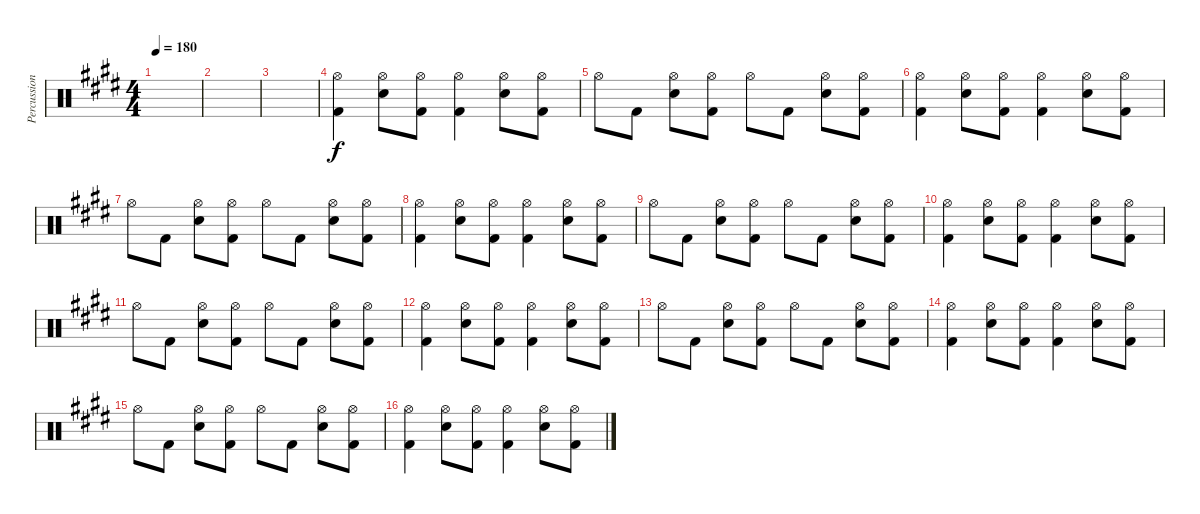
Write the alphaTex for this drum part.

\track ("Percussion" "Percussion") {instrument percussion}
\staff {score}
\articulation defaults
\ts (4 4)
\tempo 180
\clef neutral
\ks c#minor
|
|
|
("Hi-Hat (open)" "Kick (hit) 2").4 ("Hi-Hat (open)" "Snare (hit) 2").8 ("Hi-Hat (open)" "Kick (hit) 2").8 ("Hi-Hat (open)" "Kick (hit) 2").4 ("Hi-Hat (open)" "Snare (hit) 2").8 ("Hi-Hat (open)" "Kick (hit) 2").8 |
"Hi-Hat (open)".8 "Kick (hit) 2".8 ("Hi-Hat (open)" "Snare (hit) 2").8 ("Hi-Hat (open)" "Kick (hit) 2").8 "Hi-Hat (open)".8 "Kick (hit) 2".8 ("Hi-Hat (open)" "Snare (hit) 2").8 ("Hi-Hat (open)" "Kick (hit) 2").8 |
("Hi-Hat (open)" "Kick (hit) 2").4 ("Hi-Hat (open)" "Snare (hit) 2").8 ("Hi-Hat (open)" "Kick (hit) 2").8 ("Hi-Hat (open)" "Kick (hit) 2").4 ("Hi-Hat (open)" "Snare (hit) 2").8 ("Hi-Hat (open)" "Kick (hit) 2").8 |
"Hi-Hat (open)".8 "Kick (hit) 2".8 ("Hi-Hat (open)" "Snare (hit) 2").8 ("Hi-Hat (open)" "Kick (hit) 2").8 "Hi-Hat (open)".8 "Kick (hit) 2".8 ("Hi-Hat (open)" "Snare (hit) 2").8 ("Hi-Hat (open)" "Kick (hit) 2").8 |
("Hi-Hat (open)" "Kick (hit) 2").4 ("Hi-Hat (open)" "Snare (hit) 2").8 ("Hi-Hat (open)" "Kick (hit) 2").8 ("Hi-Hat (open)" "Kick (hit) 2").4 ("Hi-Hat (open)" "Snare (hit) 2").8 ("Hi-Hat (open)" "Kick (hit) 2").8 |
"Hi-Hat (open)".8 "Kick (hit) 2".8 ("Hi-Hat (open)" "Snare (hit) 2").8 ("Hi-Hat (open)" "Kick (hit) 2").8 "Hi-Hat (open)".8 "Kick (hit) 2".8 ("Hi-Hat (open)" "Snare (hit) 2").8 ("Hi-Hat (open)" "Kick (hit) 2").8 |
("Hi-Hat (open)" "Kick (hit) 2").4 ("Hi-Hat (open)" "Snare (hit) 2").8 ("Hi-Hat (open)" "Kick (hit) 2").8 ("Hi-Hat (open)" "Kick (hit) 2").4 ("Hi-Hat (open)" "Snare (hit) 2").8 ("Hi-Hat (open)" "Kick (hit) 2").8 |
"Hi-Hat (open)".8 "Kick (hit) 2".8 ("Hi-Hat (open)" "Snare (hit) 2").8 ("Hi-Hat (open)" "Kick (hit) 2").8 "Hi-Hat (open)".8 "Kick (hit) 2".8 ("Hi-Hat (open)" "Snare (hit) 2").8 ("Hi-Hat (open)" "Kick (hit) 2").8 |
("Hi-Hat (open)" "Kick (hit) 2").4 ("Hi-Hat (open)" "Snare (hit) 2").8 ("Hi-Hat (open)" "Kick (hit) 2").8 ("Hi-Hat (open)" "Kick (hit) 2").4 ("Hi-Hat (open)" "Snare (hit) 2").8 ("Hi-Hat (open)" "Kick (hit) 2").8 |
"Hi-Hat (open)".8 "Kick (hit) 2".8 ("Hi-Hat (open)" "Snare (hit) 2").8 ("Hi-Hat (open)" "Kick (hit) 2").8 "Hi-Hat (open)".8 "Kick (hit) 2".8 ("Hi-Hat (open)" "Snare (hit) 2").8 ("Hi-Hat (open)" "Kick (hit) 2").8 |
("Hi-Hat (open)" "Kick (hit) 2").4 ("Hi-Hat (open)" "Snare (hit) 2").8 ("Hi-Hat (open)" "Kick (hit) 2").8 ("Hi-Hat (open)" "Kick (hit) 2").4 ("Hi-Hat (open)" "Snare (hit) 2").8 ("Hi-Hat (open)" "Kick (hit) 2").8 |
"Hi-Hat (open)".8 "Kick (hit) 2".8 ("Hi-Hat (open)" "Snare (hit) 2").8 ("Hi-Hat (open)" "Kick (hit) 2").8 "Hi-Hat (open)".8 "Kick (hit) 2".8 ("Hi-Hat (open)" "Snare (hit) 2").8 ("Hi-Hat (open)" "Kick (hit) 2").8 |
("Hi-Hat (open)" "Kick (hit) 2").4 ("Hi-Hat (open)" "Snare (hit) 2").8 ("Hi-Hat (open)" "Kick (hit) 2").8 ("Hi-Hat (open)" "Kick (hit) 2").4 ("Hi-Hat (open)" "Snare (hit) 2").8 ("Hi-Hat (open)" "Kick (hit) 2").8
